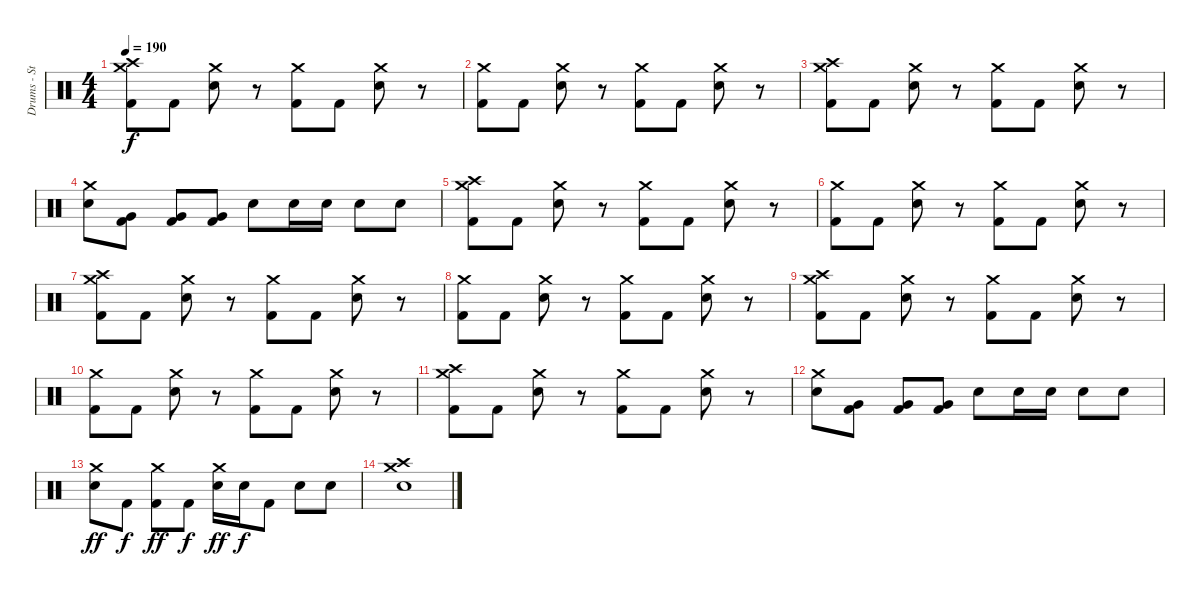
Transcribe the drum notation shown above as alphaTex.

\track ("Drums - Stevo 32" "Drums - St") {instrument percussion}
\staff {score}
\articulation defaults
\ts (4 4)
\tempo 190
\clef neutral
\ks c
("Crash high (hit)" "Crash medium (hit)" "Kick (hit) 2").8{dy f} "Kick (hit) 2".8 ("Crash medium (hit)" "Electric Snare (hit)").8 r.8 ("Crash medium (hit)" "Kick (hit) 2").8 "Kick (hit) 2".8 ("Crash medium (hit)" "Electric Snare (hit)").8 r.8 |
("Crash medium (hit)" "Kick (hit) 2").8 "Kick (hit) 2".8 ("Crash medium (hit)" "Electric Snare (hit)").8 r.8 ("Crash medium (hit)" "Kick (hit) 2").8 "Kick (hit) 2".8 ("Crash medium (hit)" "Electric Snare (hit)").8 r.8 |
("Crash high (hit)" "Crash medium (hit)" "Kick (hit) 2").8 "Kick (hit) 2".8 ("Crash medium (hit)" "Electric Snare (hit)").8 r.8 ("Crash medium (hit)" "Kick (hit) 2").8 "Kick (hit) 2".8 ("Crash medium (hit)" "Electric Snare (hit)").8 r.8 |
("Crash medium (hit)" "Electric Snare (hit)").8 ("Very Low Tom (hit)" "Kick (hit) 2").8 ("Very Low Tom (hit)" "Kick (hit) 2").8 ("Very Low Tom (hit)" "Kick (hit) 2").8 "Electric Snare (hit)".8 "Electric Snare (hit)".16 "Electric Snare (hit)".16 "Electric Snare (hit)".8 "Electric Snare (hit)".8 |
("Crash high (hit)" "Crash medium (hit)" "Kick (hit) 2").8 "Kick (hit) 2".8 ("Crash medium (hit)" "Electric Snare (hit)").8 r.8 ("Crash medium (hit)" "Kick (hit) 2").8 "Kick (hit) 2".8 ("Crash medium (hit)" "Electric Snare (hit)").8 r.8 |
("Crash medium (hit)" "Kick (hit) 2").8 "Kick (hit) 2".8 ("Crash medium (hit)" "Electric Snare (hit)").8 r.8 ("Crash medium (hit)" "Kick (hit) 2").8 "Kick (hit) 2".8 ("Crash medium (hit)" "Electric Snare (hit)").8 r.8 |
("Crash high (hit)" "Crash medium (hit)" "Kick (hit) 2").8 "Kick (hit) 2".8 ("Crash medium (hit)" "Electric Snare (hit)").8 r.8 ("Crash medium (hit)" "Kick (hit) 2").8 "Kick (hit) 2".8 ("Crash medium (hit)" "Electric Snare (hit)").8 r.8 |
("Crash medium (hit)" "Kick (hit) 2").8 "Kick (hit) 2".8 ("Crash medium (hit)" "Electric Snare (hit)").8 r.8 ("Crash medium (hit)" "Kick (hit) 2").8 "Kick (hit) 2".8 ("Crash medium (hit)" "Electric Snare (hit)").8 r.8 |
("Crash high (hit)" "Crash medium (hit)" "Kick (hit) 2").8 "Kick (hit) 2".8 ("Crash medium (hit)" "Electric Snare (hit)").8 r.8 ("Crash medium (hit)" "Kick (hit) 2").8 "Kick (hit) 2".8 ("Crash medium (hit)" "Electric Snare (hit)").8 r.8 |
("Crash medium (hit)" "Kick (hit) 2").8 "Kick (hit) 2".8 ("Crash medium (hit)" "Electric Snare (hit)").8 r.8 ("Crash medium (hit)" "Kick (hit) 2").8 "Kick (hit) 2".8 ("Crash medium (hit)" "Electric Snare (hit)").8 r.8 |
("Crash high (hit)" "Crash medium (hit)" "Kick (hit) 2").8 "Kick (hit) 2".8 ("Crash medium (hit)" "Electric Snare (hit)").8 r.8 ("Crash medium (hit)" "Kick (hit) 2").8 "Kick (hit) 2".8 ("Crash medium (hit)" "Electric Snare (hit)").8 r.8 |
("Crash medium (hit)" "Electric Snare (hit)").8 ("Very Low Tom (hit)" "Kick (hit) 2").8 ("Very Low Tom (hit)" "Kick (hit) 2").8 ("Very Low Tom (hit)" "Kick (hit) 2").8 "Electric Snare (hit)".8 "Electric Snare (hit)".16 "Electric Snare (hit)".16 "Electric Snare (hit)".8 "Electric Snare (hit)".8 |
("Crash medium (hit)" "Electric Snare (hit)").8{dy ff} "Kick (hit) 2".8{dy f} ("Crash medium (hit)" "Kick (hit) 2").8{dy ff} "Kick (hit) 2".8{dy f} ("Crash medium (hit)" "Electric Snare (hit)").16{dy ff} "Electric Snare (hit)".16{dy f} "Kick (hit) 2".8 "Electric Snare (hit)".8 "Electric Snare (hit)".8 |
("Crash high (hit)" "Crash medium (hit)" "Electric Snare (hit)").1{volume 3}
